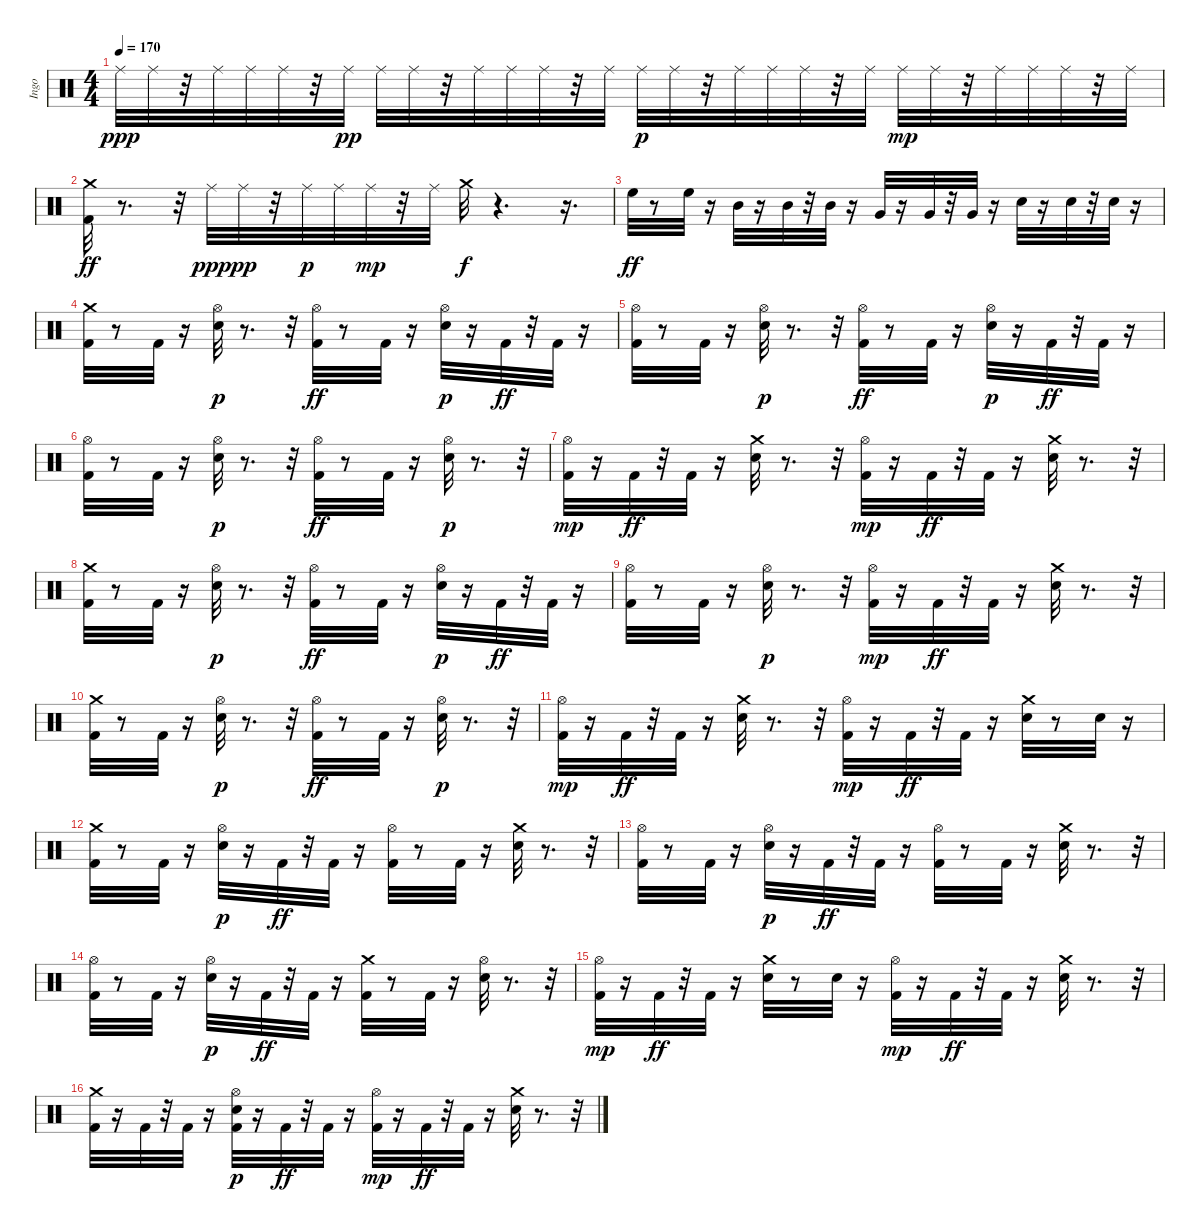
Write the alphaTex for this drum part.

\track ("Ingo" "Ingo") {instrument percussion}
\staff {score}
\articulation defaults
\ts (4 4)
\tempo 170
\clef neutral
\ks c "Ride (middle)".32{dy ppp} "Ride (middle)".32
r.32 "Ride (middle)".32 "Ride (middle)".32 "Ride (middle)".32 r.32 "Ride (middle)".32{dy pp} "Ride (middle)".32 "Ride (middle)".32 r.32 "Ride (middle)".32 "Ride (middle)".32 "Ride (middle)".32 r.32 "Ride (middle)".32 "Ride (middle)".32{dy p} "Ride (middle)".32 r.32 "Ride (middle)".32 "Ride (middle)".32 "Ride (middle)".32 r.32 "Ride (middle)".32 "Ride (middle)".32{dy mp} "Ride (middle)".32 r.32 "Ride (middle)".32 "Ride (middle)".32 "Ride (middle)".32 r.32 "Ride (middle)".32 |
("Crash medium (hit)" "Kick (hit) 2").32{dy ff} r.8{d} r.32 "Ride (middle)".32{dy ppp} "Ride (middle)".32{dy pp} r.32 "Ride (middle)".32{dy p} "Ride (middle)".32 "Ride (middle)".32{dy mp} r.32 "Ride (middle)".32 "Crash medium (hit)".32{dy f} r.4{d} r.16{d} |
"High Floor Tom (hit)".32{dy ff} r.8 "High Floor Tom (hit)".32 r.16 "Mid Tom (hit)".32 r.16 "Mid Tom (hit)".32 r.32 "Mid Tom (hit)".32 r.16 "Very Low Tom (hit)".32 r.16 "Very Low Tom (hit)".32 r.32 "Very Low Tom (hit)".32 r.16 "Snare (hit)".32 r.16 "Snare (hit)".32 r.32 "Snare (hit)".32 r.16 |
("Crash medium (hit)" "Kick (hit) 2").32 r.8 "Kick (hit) 2".32 r.16 ("Snare (hit) 2" "Hi-Hat (open)").32{dy p} r.8{d} r.32 ("Hi-Hat (open)" "Kick (hit) 2").32{dy ff} r.8 "Kick (hit) 2".32 r.16 ("Snare (hit) 2" "Hi-Hat (open)").32{dy p} r.16 "Kick (hit) 2".32{dy ff} r.32 "Kick (hit) 2".32 r.16 |
("Hi-Hat (open)" "Kick (hit) 2").32 r.8 "Kick (hit) 2".32 r.16 ("Snare (hit) 2" "Hi-Hat (open)").32{dy p} r.8{d} r.32 ("Hi-Hat (open)" "Kick (hit) 2").32{dy ff} r.8 "Kick (hit) 2".32 r.16 ("Snare (hit) 2" "Hi-Hat (open)").32{dy p} r.16 "Kick (hit) 2".32{dy ff} r.32 "Kick (hit) 2".32 r.16 |
("Hi-Hat (open)" "Kick (hit) 2").32 r.8 "Kick (hit) 2".32 r.16 ("Snare (hit) 2" "Hi-Hat (open)").32{dy p} r.8{d} r.32 ("Hi-Hat (open)" "Kick (hit) 2").32{dy ff} r.8 "Kick (hit) 2".32 r.16 ("Snare (hit) 2" "Hi-Hat (open)").32{dy p} r.8{d} r.32 |
("Kick (hit) 2" "Hi-Hat (open)").32{dy mp} r.16 "Kick (hit) 2".32{dy ff} r.32 "Kick (hit) 2".32 r.16 ("Crash medium (hit)" "Snare (hit) 2").32 r.8{d} r.32 ("Kick (hit) 2" "Hi-Hat (open)").32{dy mp} r.16 "Kick (hit) 2".32{dy ff} r.32 "Kick (hit) 2".32 r.16 ("Crash medium (hit)" "Snare (hit) 2").32 r.8{d} r.32 |
("Crash medium (hit)" "Kick (hit) 2").32 r.8 "Kick (hit) 2".32 r.16 ("Snare (hit) 2" "Hi-Hat (open)").32{dy p} r.8{d} r.32 ("Hi-Hat (open)" "Kick (hit) 2").32{dy ff} r.8 "Kick (hit) 2".32 r.16 ("Snare (hit) 2" "Hi-Hat (open)").32{dy p} r.16 "Kick (hit) 2".32{dy ff} r.32 "Kick (hit) 2".32 r.16 |
("Hi-Hat (open)" "Kick (hit) 2").32 r.8 "Kick (hit) 2".32 r.16 ("Snare (hit) 2" "Hi-Hat (open)").32{dy p} r.8{d} r.32 ("Kick (hit) 2" "Hi-Hat (open)").32{dy mp} r.16 "Kick (hit) 2".32{dy ff} r.32 "Kick (hit) 2".32 r.16 ("Crash medium (hit)" "Snare (hit) 2").32 r.8{d} r.32 |
("Crash medium (hit)" "Kick (hit) 2").32 r.8 "Kick (hit) 2".32 r.16 ("Snare (hit) 2" "Hi-Hat (open)").32{dy p} r.8{d} r.32 ("Hi-Hat (open)" "Kick (hit) 2").32{dy ff} r.8 "Kick (hit) 2".32 r.16 ("Snare (hit) 2" "Hi-Hat (open)").32{dy p} r.8{d} r.32 |
("Kick (hit) 2" "Hi-Hat (open)").32{dy mp} r.16 "Kick (hit) 2".32{dy ff} r.32 "Kick (hit) 2".32 r.16 ("Crash medium (hit)" "Snare (hit) 2").32 r.8{d} r.32 ("Kick (hit) 2" "Hi-Hat (open)").32{dy mp} r.16 "Kick (hit) 2".32{dy ff} r.32 "Kick (hit) 2".32 r.16 ("Crash medium (hit)" "Snare (hit) 2").32 r.8 "Snare (hit) 2".32 r.16 |
("Crash medium (hit)" "Kick (hit) 2").32 r.8 "Kick (hit) 2".32 r.16 ("Snare (hit) 2" "Hi-Hat (open)").32{dy p} r.16 "Kick (hit) 2".32{dy ff} r.32 "Kick (hit) 2".32 r.16 ("Hi-Hat (open)" "Kick (hit) 2").32 r.8 "Kick (hit) 2".32 r.16 ("Crash medium (hit)" "Snare (hit) 2").32 r.8{d} r.32 |
("Hi-Hat (open)" "Kick (hit) 2").32 r.8 "Kick (hit) 2".32 r.16 ("Snare (hit) 2" "Hi-Hat (open)").32{dy p} r.16 "Kick (hit) 2".32{dy ff} r.32 "Kick (hit) 2".32 r.16 ("Hi-Hat (open)" "Kick (hit) 2").32 r.8 "Kick (hit) 2".32 r.16 ("Crash medium (hit)" "Snare (hit) 2").32 r.8{d} r.32 |
("Hi-Hat (open)" "Kick (hit) 2").32 r.8 "Kick (hit) 2".32 r.16 ("Snare (hit) 2" "Hi-Hat (open)").32{dy p} r.16 "Kick (hit) 2".32{dy ff} r.32 "Kick (hit) 2".32 r.16 ("Crash medium (hit)" "Kick (hit) 2").32 r.8 "Kick (hit) 2".32 r.16 ("Hi-Hat (open)" "Snare (hit) 2").32 r.8{d} r.32 |
("Kick (hit) 2" "Hi-Hat (open)").32{dy mp} r.16 "Kick (hit) 2".32{dy ff} r.32 "Kick (hit) 2".32 r.16 ("Crash medium (hit)" "Snare (hit) 2").32 r.8 "Snare (hit) 2".32 r.16 ("Kick (hit) 2" "Hi-Hat (open)").32{dy mp} r.16 "Kick (hit) 2".32{dy ff} r.32 "Kick (hit) 2".32 r.16 ("Crash medium (hit)" "Snare (hit) 2").32 r.8{d} r.32 |
("Crash medium (hit)" "Kick (hit) 2").32 r.16 "Kick (hit) 2".32 r.32 "Kick (hit) 2".32 r.16 ("Snare (hit) 2" "Kick (hit) 2" "Hi-Hat (open)").32{dy p} r.16 "Kick (hit) 2".32{dy ff} r.32 "Kick (hit) 2".32 r.16 ("Kick (hit) 2" "Hi-Hat (open)").32{dy mp} r.16 "Kick (hit) 2".32{dy ff} r.32 "Kick (hit) 2".32 r.16 ("Crash medium (hit)" "Snare (hit) 2").32 r.8{d} r.32
